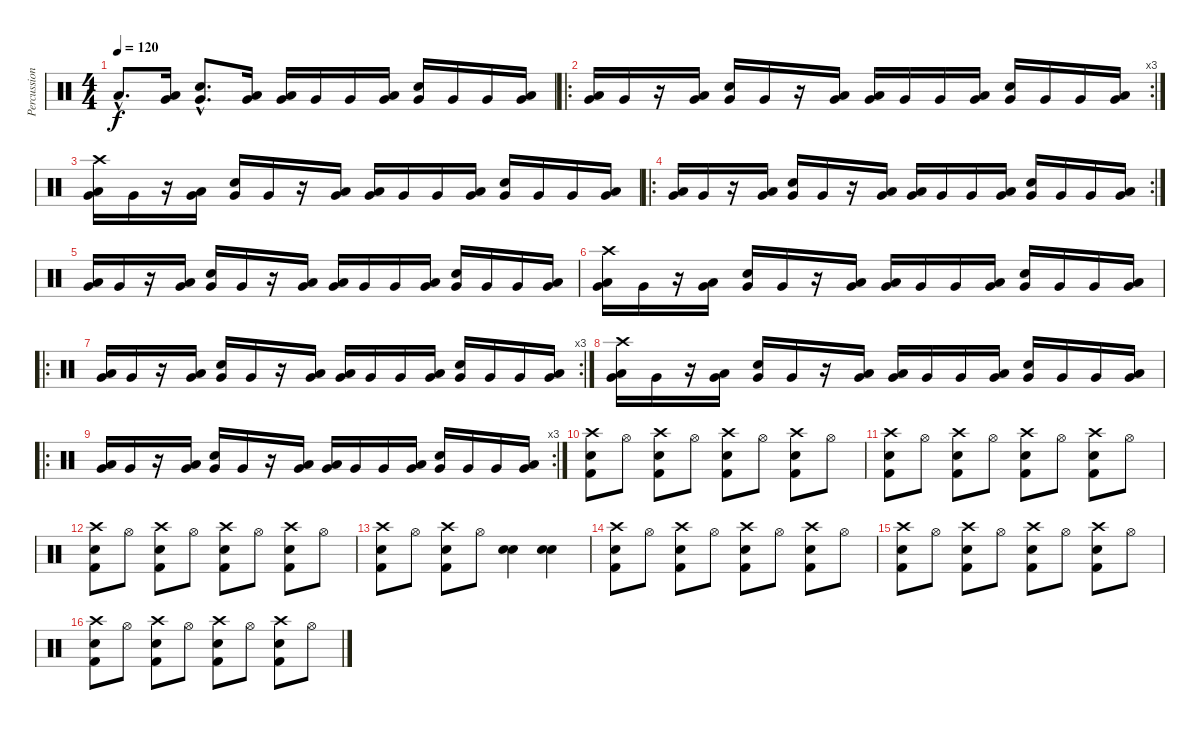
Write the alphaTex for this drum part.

\track ("Percussions" "Percussion") {instrument percussion}
\staff {score}
\articulation defaults
\ts (4 4)
\tempo 120
\clef neutral
\ks c "Low Floor Tom (hit)"{hac}.8{d dy f}
("Low Floor Tom (hit)" "Very Low Tom (hit)").16 ("Snare (hit) 2"{hac} "Very Low Tom (hit)"{hac}).8{d} ("Low Floor Tom (hit)" "Very Low Tom (hit)").16 ("Low Floor Tom (hit)" "Very Low Tom (hit)").16 "Very Low Tom (hit)".16 "Very Low Tom (hit)".16 ("Low Floor Tom (hit)" "Very Low Tom (hit)").16 ("Snare (hit) 2" "Very Low Tom (hit)").16 "Very Low Tom (hit)".16 "Very Low Tom (hit)".16 ("Low Floor Tom (hit)" "Very Low Tom (hit)").16 |
\ro
\rc 3
("Low Floor Tom (hit)" "Very Low Tom (hit)").16 "Very Low Tom (hit)".16 r.16 ("Low Floor Tom (hit)" "Very Low Tom (hit)").16 ("Snare (hit) 2" "Very Low Tom (hit)").16 "Very Low Tom (hit)".16 r.16 ("Low Floor Tom (hit)" "Very Low Tom (hit)").16 ("Low Floor Tom (hit)" "Very Low Tom (hit)").16 "Very Low Tom (hit)".16 "Very Low Tom (hit)".16 ("Low Floor Tom (hit)" "Very Low Tom (hit)").16 ("Snare (hit) 2" "Very Low Tom (hit)").16 "Very Low Tom (hit)".16 "Very Low Tom (hit)".16 ("Low Floor Tom (hit)" "Very Low Tom (hit)").16 |
("Low Floor Tom (hit)" "Crash high (hit)" "Very Low Tom (hit)").16 "Very Low Tom (hit)".16 r.16 ("Low Floor Tom (hit)" "Very Low Tom (hit)").16 ("Snare (hit) 2" "Very Low Tom (hit)").16 "Very Low Tom (hit)".16 r.16 ("Low Floor Tom (hit)" "Very Low Tom (hit)").16 ("Low Floor Tom (hit)" "Very Low Tom (hit)").16 "Very Low Tom (hit)".16 "Very Low Tom (hit)".16 ("Low Floor Tom (hit)" "Very Low Tom (hit)").16 ("Snare (hit) 2" "Very Low Tom (hit)").16 "Very Low Tom (hit)".16 "Very Low Tom (hit)".16 ("Low Floor Tom (hit)" "Very Low Tom (hit)").16 |
\ro
\rc 2
("Low Floor Tom (hit)" "Very Low Tom (hit)").16 "Very Low Tom (hit)".16 r.16 ("Low Floor Tom (hit)" "Very Low Tom (hit)").16 ("Snare (hit) 2" "Very Low Tom (hit)").16 "Very Low Tom (hit)".16 r.16 ("Low Floor Tom (hit)" "Very Low Tom (hit)").16 ("Low Floor Tom (hit)" "Very Low Tom (hit)").16 "Very Low Tom (hit)".16 "Very Low Tom (hit)".16 ("Low Floor Tom (hit)" "Very Low Tom (hit)").16 ("Snare (hit) 2" "Very Low Tom (hit)").16 "Very Low Tom (hit)".16 "Very Low Tom (hit)".16 ("Low Floor Tom (hit)" "Very Low Tom (hit)").16 |
("Low Floor Tom (hit)" "Very Low Tom (hit)").16 "Very Low Tom (hit)".16 r.16 ("Low Floor Tom (hit)" "Very Low Tom (hit)").16 ("Snare (hit) 2" "Very Low Tom (hit)").16 "Very Low Tom (hit)".16 r.16 ("Low Floor Tom (hit)" "Very Low Tom (hit)").16 ("Low Floor Tom (hit)" "Very Low Tom (hit)").16 "Very Low Tom (hit)".16 "Very Low Tom (hit)".16 ("Low Floor Tom (hit)" "Very Low Tom (hit)").16 ("Snare (hit) 2" "Very Low Tom (hit)").16 "Very Low Tom (hit)".16 "Very Low Tom (hit)".16 ("Low Floor Tom (hit)" "Very Low Tom (hit)").16 |
("Low Floor Tom (hit)" "Crash high (hit)" "Very Low Tom (hit)").16 "Very Low Tom (hit)".16 r.16 ("Low Floor Tom (hit)" "Very Low Tom (hit)").16 ("Snare (hit) 2" "Very Low Tom (hit)").16 "Very Low Tom (hit)".16 r.16 ("Low Floor Tom (hit)" "Very Low Tom (hit)").16 ("Low Floor Tom (hit)" "Very Low Tom (hit)").16 "Very Low Tom (hit)".16 "Very Low Tom (hit)".16 ("Low Floor Tom (hit)" "Very Low Tom (hit)").16 ("Snare (hit) 2" "Very Low Tom (hit)").16 "Very Low Tom (hit)".16 "Very Low Tom (hit)".16 ("Low Floor Tom (hit)" "Very Low Tom (hit)").16 |
\ro
\rc 3
("Low Floor Tom (hit)" "Very Low Tom (hit)").16 "Very Low Tom (hit)".16 r.16 ("Low Floor Tom (hit)" "Very Low Tom (hit)").16 ("Snare (hit) 2" "Very Low Tom (hit)").16 "Very Low Tom (hit)".16 r.16 ("Low Floor Tom (hit)" "Very Low Tom (hit)").16 ("Low Floor Tom (hit)" "Very Low Tom (hit)").16 "Very Low Tom (hit)".16 "Very Low Tom (hit)".16 ("Low Floor Tom (hit)" "Very Low Tom (hit)").16 ("Snare (hit) 2" "Very Low Tom (hit)").16 "Very Low Tom (hit)".16 "Very Low Tom (hit)".16 ("Low Floor Tom (hit)" "Very Low Tom (hit)").16 |
("Low Floor Tom (hit)" "Crash high (hit)" "Very Low Tom (hit)").16 "Very Low Tom (hit)".16 r.16 ("Low Floor Tom (hit)" "Very Low Tom (hit)").16 ("Snare (hit) 2" "Very Low Tom (hit)").16 "Very Low Tom (hit)".16 r.16 ("Low Floor Tom (hit)" "Very Low Tom (hit)").16 ("Low Floor Tom (hit)" "Very Low Tom (hit)").16 "Very Low Tom (hit)".16 "Very Low Tom (hit)".16 ("Low Floor Tom (hit)" "Very Low Tom (hit)").16 ("Snare (hit) 2" "Very Low Tom (hit)").16 "Very Low Tom (hit)".16 "Very Low Tom (hit)".16 ("Low Floor Tom (hit)" "Very Low Tom (hit)").16 |
\ro
\rc 3
("Low Floor Tom (hit)" "Very Low Tom (hit)").16 "Very Low Tom (hit)".16 r.16 ("Low Floor Tom (hit)" "Very Low Tom (hit)").16 ("Snare (hit) 2" "Very Low Tom (hit)").16 "Very Low Tom (hit)".16 r.16 ("Low Floor Tom (hit)" "Very Low Tom (hit)").16 ("Low Floor Tom (hit)" "Very Low Tom (hit)").16 "Very Low Tom (hit)".16 "Very Low Tom (hit)".16 ("Low Floor Tom (hit)" "Very Low Tom (hit)").16 ("Snare (hit) 2" "Very Low Tom (hit)").16 "Very Low Tom (hit)".16 "Very Low Tom (hit)".16 ("Low Floor Tom (hit)" "Very Low Tom (hit)").16 |
("Snare (hit) 2" "Crash high (hit)" "Kick (hit) 2").8 "Hi-Hat (open)".8 ("Snare (hit) 2" "Crash high (hit)" "Kick (hit) 2").8 "Hi-Hat (open)".8 ("Snare (hit) 2" "Crash high (hit)" "Kick (hit) 2").8 "Hi-Hat (open)".8 ("Snare (hit) 2" "Crash high (hit)" "Kick (hit) 2").8 "Hi-Hat (open)".8 |
("Snare (hit) 2" "Crash high (hit)" "Kick (hit) 2").8 "Hi-Hat (open)".8 ("Snare (hit) 2" "Crash high (hit)" "Kick (hit) 2").8 "Hi-Hat (open)".8 ("Snare (hit) 2" "Crash high (hit)" "Kick (hit) 2").8 "Hi-Hat (open)".8 ("Snare (hit) 2" "Crash high (hit)" "Kick (hit) 2").8 "Hi-Hat (open)".8 |
("Snare (hit) 2" "Crash high (hit)" "Kick (hit) 2").8 "Hi-Hat (open)".8 ("Snare (hit) 2" "Crash high (hit)" "Kick (hit) 2").8 "Hi-Hat (open)".8 ("Snare (hit) 2" "Crash high (hit)" "Kick (hit) 2").8 "Hi-Hat (open)".8 ("Snare (hit) 2" "Crash high (hit)" "Kick (hit) 2").8 "Hi-Hat (open)".8 |
("Snare (hit) 2" "Crash high (hit)" "Kick (hit) 2").8 "Hi-Hat (open)".8 ("Snare (hit) 2" "Crash high (hit)" "Kick (hit) 2").8 "Hi-Hat (open)".8 ("Snare (hit) 2" "Snare (hit) 2").4 ("Snare (hit) 2" "Snare (hit) 2").4 |
("Snare (hit) 2" "Crash high (hit)" "Kick (hit) 2").8 "Hi-Hat (open)".8 ("Snare (hit) 2" "Crash high (hit)" "Kick (hit) 2").8 "Hi-Hat (open)".8 ("Snare (hit) 2" "Crash high (hit)" "Kick (hit) 2").8 "Hi-Hat (open)".8 ("Snare (hit) 2" "Crash high (hit)" "Kick (hit) 2").8 "Hi-Hat (open)".8 |
("Snare (hit) 2" "Crash high (hit)" "Kick (hit) 2").8 "Hi-Hat (open)".8 ("Snare (hit) 2" "Crash high (hit)" "Kick (hit) 2").8 "Hi-Hat (open)".8 ("Snare (hit) 2" "Crash high (hit)" "Kick (hit) 2").8 "Hi-Hat (open)".8 ("Snare (hit) 2" "Crash high (hit)" "Kick (hit) 2").8 "Hi-Hat (open)".8 |
("Snare (hit) 2" "Crash high (hit)" "Kick (hit) 2").8 "Hi-Hat (open)".8 ("Snare (hit) 2" "Crash high (hit)" "Kick (hit) 2").8 "Hi-Hat (open)".8 ("Snare (hit) 2" "Crash high (hit)" "Kick (hit) 2").8 "Hi-Hat (open)".8 ("Snare (hit) 2" "Crash high (hit)" "Kick (hit) 2").8 "Hi-Hat (open)".8
